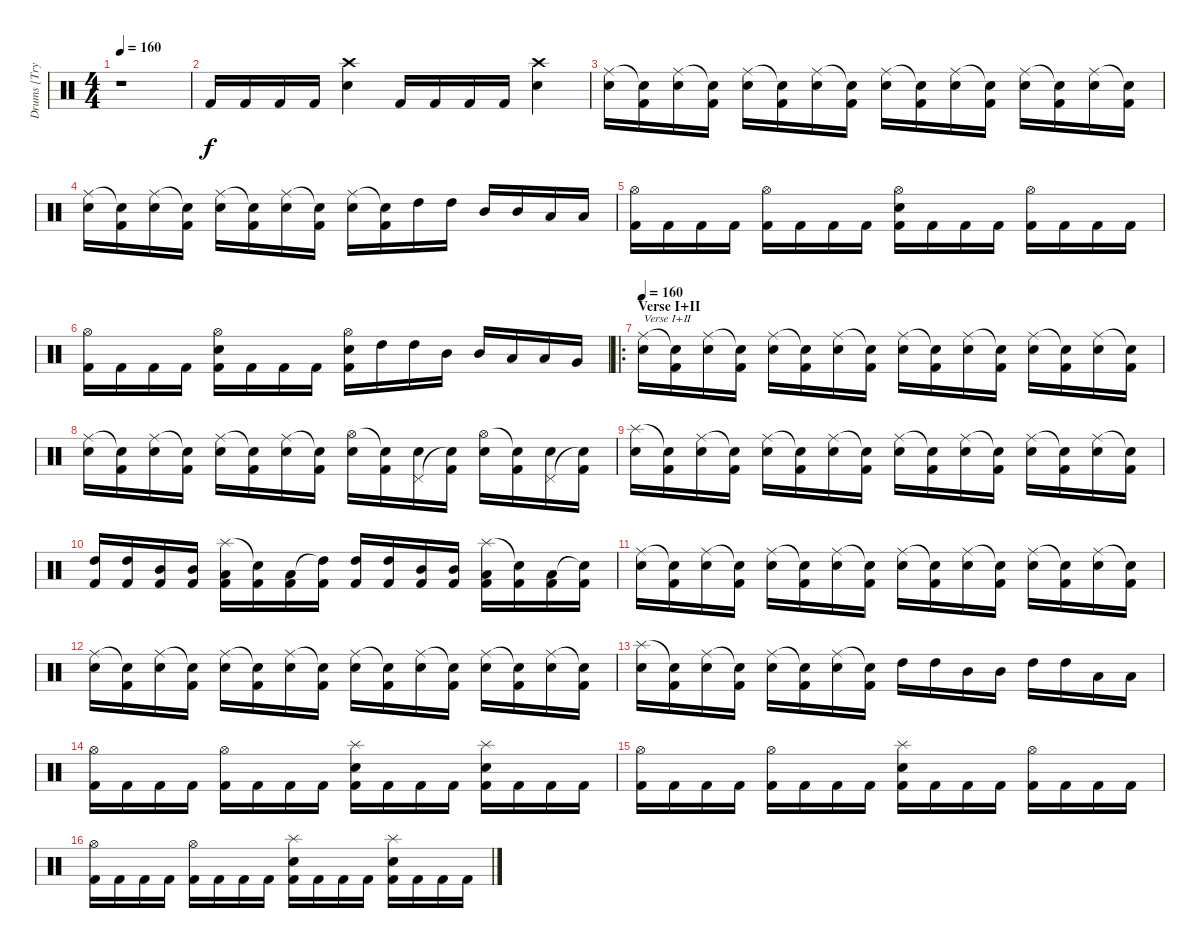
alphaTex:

\track ("Drums [Trym]" "Drums [Try") {instrument percussion}
\staff {score}
\articulation defaults
\ts (4 4)
\tempo 160
\clef neutral
\ks c
r.1{dy f} |
"Kick (hit) 2".16 "Kick (hit) 2".16 "Kick (hit) 2".16 "Kick (hit) 2".16 ("Crash high (hit)" "Electric Snare (hit)").4 "Kick (hit) 2".16 "Kick (hit) 2".16 "Kick (hit) 2".16 "Kick (hit) 2".16 ("Crash high (hit)" "Electric Snare (hit)").4 |
("Ride (middle)" "Electric Snare (hit)").16 ("Snare (hit)"{t} "Kick (hit) 2").16 ("Ride (middle)" "Electric Snare (hit)").16 ("Snare (hit)"{t} "Kick (hit) 2").16 ("Ride (middle)" "Electric Snare (hit)").16 ("Snare (hit)"{t} "Kick (hit) 2").16 ("Ride (middle)" "Electric Snare (hit)").16 ("Snare (hit)"{t} "Kick (hit) 2").16 ("Ride (middle)" "Electric Snare (hit)").16 ("Snare (hit)"{t} "Kick (hit) 2").16 ("Ride (middle)" "Electric Snare (hit)").16 ("Snare (hit)"{t} "Kick (hit) 2").16 ("Ride (middle)" "Electric Snare (hit)").16 ("Snare (hit)"{t} "Kick (hit) 2").16 ("Ride (middle)" "Electric Snare (hit)").16 ("Snare (hit)"{t} "Kick (hit) 2").16 |
("Ride (middle)" "Electric Snare (hit)").16 ("Snare (hit)"{t} "Kick (hit) 2").16 ("Ride (middle)" "Electric Snare (hit)").16 ("Snare (hit)"{t} "Kick (hit) 2").16 ("Ride (middle)" "Electric Snare (hit)").16 ("Snare (hit)"{t} "Kick (hit) 2").16 ("Ride (middle)" "Electric Snare (hit)").16 ("Snare (hit)"{t} "Kick (hit) 2").16 ("Ride (middle)" "Electric Snare (hit)").16 ("Snare (hit)"{t} "Kick (hit) 2").16 "High Tom (hit)".16 "High Tom (hit)".16 "Mid Tom (hit)".16 "Mid Tom (hit)".16 "Low Tom (hit)".16 "Low Tom (hit)".16 |
("Hi-Hat (open)" "Kick (hit) 2").16 "Kick (hit) 2".16 "Kick (hit) 2".16 "Kick (hit) 2".16 ("Hi-Hat (open)" "Kick (hit) 2").16 "Kick (hit) 2".16 "Kick (hit) 2".16 "Kick (hit) 2".16 ("Hi-Hat (open)" "Electric Snare (hit)" "Kick (hit) 2").16 "Kick (hit) 2".16 "Kick (hit) 2".16 "Kick (hit) 2".16 ("Hi-Hat (open)" "Kick (hit) 2").16 "Kick (hit) 2".16 "Kick (hit) 2".16 "Kick (hit) 2".16 |
("Hi-Hat (open)" "Kick (hit) 2").16 "Kick (hit) 2".16 "Kick (hit) 2".16 "Kick (hit) 2".16 ("Hi-Hat (open)" "Electric Snare (hit)" "Kick (hit) 2").16 "Kick (hit) 2".16 "Kick (hit) 2".16 "Kick (hit) 2".16 ("Hi-Hat (open)" "Electric Snare (hit)" "Kick (hit) 2").16 "High Tom (hit)".16 "High Tom (hit)".16 "Mid Tom (hit)".16 "Mid Tom (hit)".16 "Low Tom (hit)".16 "Low Tom (hit)".16 "Very Low Tom (hit)".16 |
\ro
\section ("" "Verse I+II")
\tempo 160
("Ride (middle)" "Electric Snare (hit)").16{txt "Verse I+II"} ("Snare (hit)"{t} "Kick (hit) 2").16 ("Ride (middle)" "Electric Snare (hit)").16 ("Snare (hit)"{t} "Kick (hit) 2").16 ("Ride (middle)" "Electric Snare (hit)").16 ("Snare (hit)"{t} "Kick (hit) 2").16 ("Ride (middle)" "Electric Snare (hit)").16 ("Snare (hit)"{t} "Kick (hit) 2").16 ("Ride (middle)" "Electric Snare (hit)").16 ("Snare (hit)"{t} "Kick (hit) 2").16 ("Ride (middle)" "Electric Snare (hit)").16 ("Snare (hit)"{t} "Kick (hit) 2").16 ("Ride (middle)" "Electric Snare (hit)").16 ("Snare (hit)"{t} "Kick (hit) 2").16 ("Ride (middle)" "Electric Snare (hit)").16 ("Snare (hit)"{t} "Kick (hit) 2").16 |
("Ride (middle)" "Electric Snare (hit)").16 ("Snare (hit)"{t} "Kick (hit) 2").16 ("Ride (middle)" "Electric Snare (hit)").16 ("Snare (hit)"{t} "Kick (hit) 2").16 ("Ride (middle)" "Electric Snare (hit)").16 ("Snare (hit)"{t} "Kick (hit) 2").16 ("Ride (middle)" "Electric Snare (hit)").16 ("Snare (hit)"{t} "Kick (hit) 2").16 ("Hi-Hat (open)" "Electric Snare (hit)").16 ("Snare (hit)"{t} "Kick (hit) 2").16 ("Pedal Hi-Hat (hit)" "Electric Snare (hit)").16 ("Snare (hit)"{t} "Kick (hit) 2").16 ("Hi-Hat (open)" "Electric Snare (hit)").16 ("Snare (hit)"{t} "Kick (hit) 2").16 ("Pedal Hi-Hat (hit)" "Electric Snare (hit)").16 ("Snare (hit)"{t} "Kick (hit) 2").16 |
("Splash (hit)" "Electric Snare (hit)").16 ("Snare (hit)"{t} "Kick (hit) 2").16 ("Ride (middle)" "Electric Snare (hit)").16 ("Snare (hit)"{t} "Kick (hit) 2").16 ("Ride (middle)" "Electric Snare (hit)").16 ("Snare (hit)"{t} "Kick (hit) 2").16 ("Ride (middle)" "Electric Snare (hit)").16 ("Snare (hit)"{t} "Kick (hit) 2").16 ("Ride (middle)" "Electric Snare (hit)").16 ("Snare (hit)"{t} "Kick (hit) 2").16 ("Ride (middle)" "Electric Snare (hit)").16 ("Snare (hit)"{t} "Kick (hit) 2").16 ("Ride (middle)" "Electric Snare (hit)").16 ("Snare (hit)"{t} "Kick (hit) 2").16 ("Ride (middle)" "Electric Snare (hit)").16 ("Snare (hit)"{t} "Kick (hit) 2").16 |
("High Tom (hit)" "Kick (hit) 2").16 ("High Tom (hit)" "Kick (hit) 2").16 ("Mid Tom (hit)" "Kick (hit) 2").16 ("Mid Tom (hit)" "Kick (hit) 2").16 ("Splash (hit)" "Low Tom (hit)" "Kick (hit) 2").16 ("Snare (hit)"{t} "Kick (hit) 2").16 ("Low Tom (hit)" "Kick (hit) 2").16 ("High Tom (hit)"{t} "Kick (hit) 2").16 ("High Tom (hit)" "Kick (hit) 2").16 ("High Tom (hit)" "Kick (hit) 2").16 ("Mid Tom (hit)" "Kick (hit) 2").16 ("Mid Tom (hit)" "Kick (hit) 2").16 ("Splash (hit)" "Low Tom (hit)" "Kick (hit) 2").16 ("Snare (hit)"{t} "Kick (hit) 2").16 ("Low Tom (hit)" "Kick (hit) 2").16 ("Snare (hit)"{t} "Kick (hit) 2").16 |
("Ride (middle)" "Electric Snare (hit)").16 ("Snare (hit)"{t} "Kick (hit) 2").16 ("Ride (middle)" "Electric Snare (hit)").16 ("Snare (hit)"{t} "Kick (hit) 2").16 ("Ride (middle)" "Electric Snare (hit)").16 ("Snare (hit)"{t} "Kick (hit) 2").16 ("Ride (middle)" "Electric Snare (hit)").16 ("Snare (hit)"{t} "Kick (hit) 2").16 ("Ride (middle)" "Electric Snare (hit)").16 ("Snare (hit)"{t} "Kick (hit) 2").16 ("Ride (middle)" "Electric Snare (hit)").16 ("Snare (hit)"{t} "Kick (hit) 2").16 ("Ride (middle)" "Electric Snare (hit)").16 ("Snare (hit)"{t} "Kick (hit) 2").16 ("Ride (middle)" "Electric Snare (hit)").16 ("Snare (hit)"{t} "Kick (hit) 2").16 |
("Ride (middle)" "Electric Snare (hit)").16 ("Snare (hit)"{t} "Kick (hit) 2").16 ("Ride (middle)" "Electric Snare (hit)").16 ("Snare (hit)"{t} "Kick (hit) 2").16 ("Ride (middle)" "Electric Snare (hit)").16 ("Snare (hit)"{t} "Kick (hit) 2").16 ("Ride (middle)" "Electric Snare (hit)").16 ("Snare (hit)"{t} "Kick (hit) 2").16 ("Ride (middle)" "Electric Snare (hit)").16 ("Snare (hit)"{t} "Kick (hit) 2").16 ("Ride (middle)" "Electric Snare (hit)").16 ("Snare (hit)"{t} "Kick (hit) 2").16 ("Ride (middle)" "Electric Snare (hit)").16 ("Snare (hit)"{t} "Kick (hit) 2").16 ("Ride (middle)" "Electric Snare (hit)").16 ("Snare (hit)"{t} "Kick (hit) 2").16 |
("Splash (hit)" "Electric Snare (hit)").16 ("Snare (hit)"{t} "Kick (hit) 2").16 ("Ride (middle)" "Electric Snare (hit)").16 ("Snare (hit)"{t} "Kick (hit) 2").16 ("Ride (middle)" "Electric Snare (hit)").16 ("Snare (hit)"{t} "Kick (hit) 2").16 ("Ride (middle)" "Electric Snare (hit)").16 ("Snare (hit)"{t} "Kick (hit) 2").16 "High Tom (hit)".16 "High Tom (hit)".16 "Mid Tom (hit)".16 "Mid Tom (hit)".16 "High Tom (hit)".16 "High Tom (hit)".16 "Low Tom (hit)".16 "Low Tom (hit)".16 |
("Hi-Hat (open)" "Kick (hit) 2").16 "Kick (hit) 2".16 "Kick (hit) 2".16 "Kick (hit) 2".16 ("Hi-Hat (open)" "Kick (hit) 2").16 "Kick (hit) 2".16 "Kick (hit) 2".16 "Kick (hit) 2".16 ("Splash (hit)" "Electric Snare (hit)" "Kick (hit) 2").16 "Kick (hit) 2".16 "Kick (hit) 2".16 "Kick (hit) 2".16 ("Splash (hit)" "Electric Snare (hit)" "Kick (hit) 2").16 "Kick (hit) 2".16 "Kick (hit) 2".16 "Kick (hit) 2".16 |
("Hi-Hat (open)" "Kick (hit) 2").16 "Kick (hit) 2".16 "Kick (hit) 2".16 "Kick (hit) 2".16 ("Hi-Hat (open)" "Kick (hit) 2").16 "Kick (hit) 2".16 "Kick (hit) 2".16 "Kick (hit) 2".16 ("Splash (hit)" "Electric Snare (hit)" "Kick (hit) 2").16 "Kick (hit) 2".16 "Kick (hit) 2".16 "Kick (hit) 2".16 ("Hi-Hat (open)" "Kick (hit) 2").16 "Kick (hit) 2".16 "Kick (hit) 2".16 "Kick (hit) 2".16 |
("Hi-Hat (open)" "Kick (hit) 2").16 "Kick (hit) 2".16 "Kick (hit) 2".16 "Kick (hit) 2".16 ("Hi-Hat (open)" "Kick (hit) 2").16 "Kick (hit) 2".16 "Kick (hit) 2".16 "Kick (hit) 2".16 ("Splash (hit)" "Electric Snare (hit)" "Kick (hit) 2").16 "Kick (hit) 2".16 "Kick (hit) 2".16 "Kick (hit) 2".16 ("Splash (hit)" "Electric Snare (hit)" "Kick (hit) 2").16 "Kick (hit) 2".16 "Kick (hit) 2".16 "Kick (hit) 2".16
